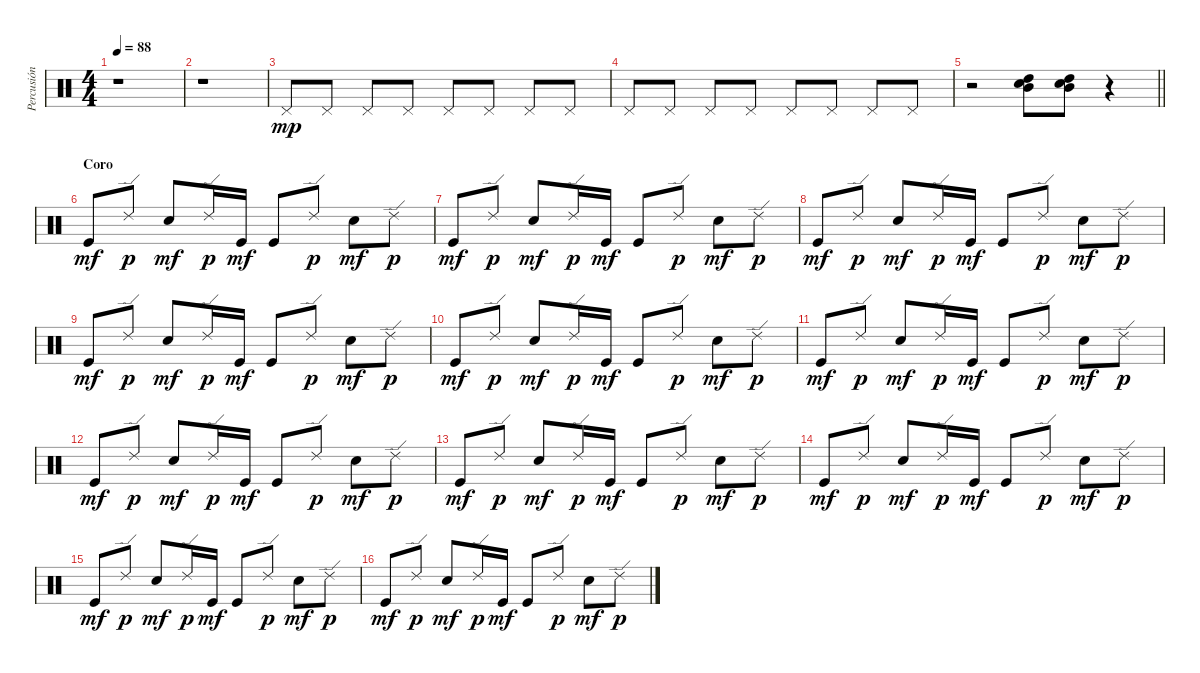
\track ("Percusión" "Percusión") {instrument percussion}
\staff {score}
\articulation defaults
\ts (4 4)
\tempo 88
\clef neutral
\ks c
r.1{dy p} |
r.1 |
"Pedal Hi-Hat (hit)".8{dy mp} "Pedal Hi-Hat (hit)".8 "Pedal Hi-Hat (hit)".8 "Pedal Hi-Hat (hit)".8 "Pedal Hi-Hat (hit)".8 "Pedal Hi-Hat (hit)".8 "Pedal Hi-Hat (hit)".8 "Pedal Hi-Hat (hit)".8 |
"Pedal Hi-Hat (hit)".8 "Pedal Hi-Hat (hit)".8 "Pedal Hi-Hat (hit)".8 "Pedal Hi-Hat (hit)".8 "Pedal Hi-Hat (hit)".8 "Pedal Hi-Hat (hit)".8 "Pedal Hi-Hat (hit)".8 "Pedal Hi-Hat (hit)".8 |
\barLineRight lightlight
r.2 ("Electric Snare (hit)" "Mid Tom (hit)" "High Tom (hit)").8 ("Electric Snare (hit)" "Mid Tom (hit)" "High Tom (hit)").8 r.4 |
\section ("" "Coro")
"Kick (hit)".8{dy mf} "Ride (edge) 2".8{dy p} "Electric Snare (hit)".8{dy mf} "Ride (edge) 2".16{dy p} "Kick (hit)".16{dy mf} "Kick (hit)".8 "Ride (edge) 2".8{dy p} "Electric Snare (hit)".8{dy mf} "Ride (edge) 2".8{dy p} |
"Kick (hit)".8{dy mf} "Ride (edge) 2".8{dy p} "Electric Snare (hit)".8{dy mf} "Ride (edge) 2".16{dy p} "Kick (hit)".16{dy mf} "Kick (hit)".8 "Ride (edge) 2".8{dy p} "Electric Snare (hit)".8{dy mf} "Ride (edge) 2".8{dy p} |
"Kick (hit)".8{dy mf} "Ride (edge) 2".8{dy p} "Electric Snare (hit)".8{dy mf} "Ride (edge) 2".16{dy p} "Kick (hit)".16{dy mf} "Kick (hit)".8 "Ride (edge) 2".8{dy p} "Electric Snare (hit)".8{dy mf} "Ride (edge) 2".8{dy p} |
"Kick (hit)".8{dy mf} "Ride (edge) 2".8{dy p} "Electric Snare (hit)".8{dy mf} "Ride (edge) 2".16{dy p} "Kick (hit)".16{dy mf} "Kick (hit)".8 "Ride (edge) 2".8{dy p} "Electric Snare (hit)".8{dy mf} "Ride (edge) 2".8{dy p} |
"Kick (hit)".8{dy mf} "Ride (edge) 2".8{dy p} "Electric Snare (hit)".8{dy mf} "Ride (edge) 2".16{dy p} "Kick (hit)".16{dy mf} "Kick (hit)".8 "Ride (edge) 2".8{dy p} "Electric Snare (hit)".8{dy mf} "Ride (edge) 2".8{dy p} |
"Kick (hit)".8{dy mf} "Ride (edge) 2".8{dy p} "Electric Snare (hit)".8{dy mf} "Ride (edge) 2".16{dy p} "Kick (hit)".16{dy mf} "Kick (hit)".8 "Ride (edge) 2".8{dy p} "Electric Snare (hit)".8{dy mf} "Ride (edge) 2".8{dy p} |
"Kick (hit)".8{dy mf} "Ride (edge) 2".8{dy p} "Electric Snare (hit)".8{dy mf} "Ride (edge) 2".16{dy p} "Kick (hit)".16{dy mf} "Kick (hit)".8 "Ride (edge) 2".8{dy p} "Electric Snare (hit)".8{dy mf} "Ride (edge) 2".8{dy p} |
"Kick (hit)".8{dy mf} "Ride (edge) 2".8{dy p} "Electric Snare (hit)".8{dy mf} "Ride (edge) 2".16{dy p} "Kick (hit)".16{dy mf} "Kick (hit)".8 "Ride (edge) 2".8{dy p} "Electric Snare (hit)".8{dy mf} "Ride (edge) 2".8{dy p} |
"Kick (hit)".8{dy mf} "Ride (edge) 2".8{dy p} "Electric Snare (hit)".8{dy mf} "Ride (edge) 2".16{dy p} "Kick (hit)".16{dy mf} "Kick (hit)".8 "Ride (edge) 2".8{dy p} "Electric Snare (hit)".8{dy mf} "Ride (edge) 2".8{dy p} |
"Kick (hit)".8{dy mf} "Ride (edge) 2".8{dy p} "Electric Snare (hit)".8{dy mf} "Ride (edge) 2".16{dy p} "Kick (hit)".16{dy mf} "Kick (hit)".8 "Ride (edge) 2".8{dy p} "Electric Snare (hit)".8{dy mf} "Ride (edge) 2".8{dy p} |
"Kick (hit)".8{dy mf} "Ride (edge) 2".8{dy p} "Electric Snare (hit)".8{dy mf} "Ride (edge) 2".16{dy p} "Kick (hit)".16{dy mf} "Kick (hit)".8 "Ride (edge) 2".8{dy p} "Electric Snare (hit)".8{dy mf} "Ride (edge) 2".8{dy p}
